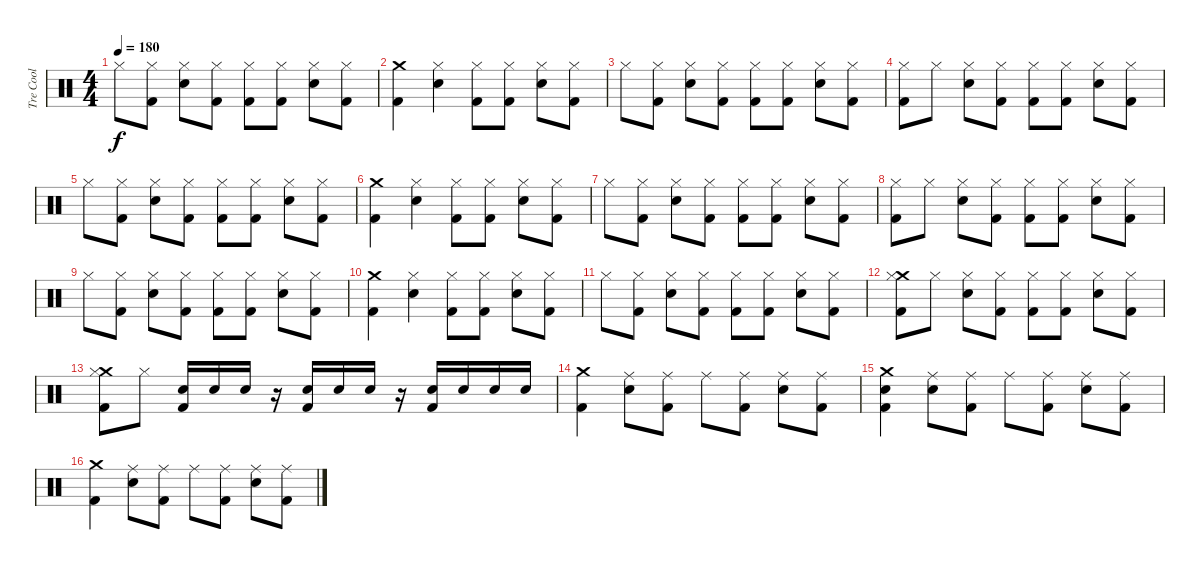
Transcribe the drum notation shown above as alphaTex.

\track ("Tre Cool" "Tre Cool") {instrument percussion}
\staff {score}
\articulation defaults
\ts (4 4)
\tempo 180
\clef neutral
\ks c "Hi-Hat (closed)".8{dy f}
("Hi-Hat (closed)" "Kick (hit) 2").8 ("Hi-Hat (closed)" "Snare (hit) 2").8 ("Hi-Hat (closed)" "Kick (hit) 2").8 ("Hi-Hat (closed)" "Kick (hit) 2").8 ("Hi-Hat (closed)" "Kick (hit) 2").8 ("Hi-Hat (closed)" "Snare (hit) 2").8 ("Hi-Hat (closed)" "Kick (hit) 2").8 |
("Crash medium (hit)" "Kick (hit) 2").4 ("Hi-Hat (closed)" "Snare (hit) 2").4 ("Hi-Hat (closed)" "Kick (hit) 2").8 ("Hi-Hat (closed)" "Kick (hit) 2").8 ("Hi-Hat (closed)" "Snare (hit) 2").8 ("Hi-Hat (closed)" "Kick (hit) 2").8 |
"Hi-Hat (closed)".8 ("Hi-Hat (closed)" "Kick (hit) 2").8 ("Hi-Hat (closed)" "Snare (hit) 2").8 ("Hi-Hat (closed)" "Kick (hit) 2").8 ("Hi-Hat (closed)" "Kick (hit) 2").8 ("Hi-Hat (closed)" "Kick (hit) 2").8 ("Hi-Hat (closed)" "Snare (hit) 2").8 ("Hi-Hat (closed)" "Kick (hit) 2").8 |
("Hi-Hat (closed)" "Kick (hit) 2").8 "Hi-Hat (closed)".8 ("Hi-Hat (closed)" "Snare (hit) 2").8 ("Hi-Hat (closed)" "Kick (hit) 2").8 ("Hi-Hat (closed)" "Kick (hit) 2").8 ("Hi-Hat (closed)" "Kick (hit) 2").8 ("Hi-Hat (closed)" "Snare (hit) 2").8 ("Hi-Hat (closed)" "Kick (hit) 2").8 |
"Hi-Hat (closed)".8 ("Hi-Hat (closed)" "Kick (hit) 2").8 ("Hi-Hat (closed)" "Snare (hit) 2").8 ("Hi-Hat (closed)" "Kick (hit) 2").8 ("Hi-Hat (closed)" "Kick (hit) 2").8 ("Hi-Hat (closed)" "Kick (hit) 2").8 ("Hi-Hat (closed)" "Snare (hit) 2").8 ("Hi-Hat (closed)" "Kick (hit) 2").8 |
("Crash medium (hit)" "Kick (hit) 2").4 ("Hi-Hat (closed)" "Snare (hit) 2").4 ("Hi-Hat (closed)" "Kick (hit) 2").8 ("Hi-Hat (closed)" "Kick (hit) 2").8 ("Hi-Hat (closed)" "Snare (hit) 2").8 ("Hi-Hat (closed)" "Kick (hit) 2").8 |
"Hi-Hat (closed)".8 ("Hi-Hat (closed)" "Kick (hit) 2").8 ("Hi-Hat (closed)" "Snare (hit) 2").8 ("Hi-Hat (closed)" "Kick (hit) 2").8 ("Hi-Hat (closed)" "Kick (hit) 2").8 ("Hi-Hat (closed)" "Kick (hit) 2").8 ("Hi-Hat (closed)" "Snare (hit) 2").8 ("Hi-Hat (closed)" "Kick (hit) 2").8 |
("Hi-Hat (closed)" "Kick (hit) 2").8 "Hi-Hat (closed)".8 ("Hi-Hat (closed)" "Snare (hit) 2").8 ("Hi-Hat (closed)" "Kick (hit) 2").8 ("Hi-Hat (closed)" "Kick (hit) 2").8 ("Hi-Hat (closed)" "Kick (hit) 2").8 ("Hi-Hat (closed)" "Snare (hit) 2").8 ("Hi-Hat (closed)" "Kick (hit) 2").8 |
"Hi-Hat (closed)".8 ("Hi-Hat (closed)" "Kick (hit) 2").8 ("Hi-Hat (closed)" "Snare (hit) 2").8 ("Hi-Hat (closed)" "Kick (hit) 2").8 ("Hi-Hat (closed)" "Kick (hit) 2").8 ("Hi-Hat (closed)" "Kick (hit) 2").8 ("Hi-Hat (closed)" "Snare (hit) 2").8 ("Hi-Hat (closed)" "Kick (hit) 2").8 |
("Crash medium (hit)" "Kick (hit) 2").4 ("Hi-Hat (closed)" "Snare (hit) 2").4 ("Hi-Hat (closed)" "Kick (hit) 2").8 ("Hi-Hat (closed)" "Kick (hit) 2").8 ("Hi-Hat (closed)" "Snare (hit) 2").8 ("Hi-Hat (closed)" "Kick (hit) 2").8 |
"Hi-Hat (closed)".8 ("Hi-Hat (closed)" "Kick (hit) 2").8 ("Hi-Hat (closed)" "Snare (hit) 2").8 ("Hi-Hat (closed)" "Kick (hit) 2").8 ("Hi-Hat (closed)" "Kick (hit) 2").8 ("Hi-Hat (closed)" "Kick (hit) 2").8 ("Hi-Hat (closed)" "Snare (hit) 2").8 ("Hi-Hat (closed)" "Kick (hit) 2").8 |
("Crash medium (hit)" "Hi-Hat (closed)" "Kick (hit) 2").8 "Hi-Hat (closed)".8 ("Hi-Hat (closed)" "Snare (hit) 2").8 ("Hi-Hat (closed)" "Kick (hit) 2").8 ("Hi-Hat (closed)" "Kick (hit) 2").8 ("Hi-Hat (closed)" "Kick (hit) 2").8 ("Hi-Hat (closed)" "Snare (hit) 2").8 ("Hi-Hat (closed)" "Kick (hit) 2").8 |
("Crash medium (hit)" "Hi-Hat (closed)" "Kick (hit) 2").8 "Hi-Hat (closed)".8 ("Snare (hit) 2" "Kick (hit) 2").16 "Snare (hit) 2".16 "Snare (hit) 2".16 r.16 ("Snare (hit) 2" "Kick (hit) 2").16 "Snare (hit) 2".16 "Snare (hit) 2".16 r.16 ("Snare (hit) 2" "Kick (hit) 2").16 "Snare (hit) 2".16 "Snare (hit) 2".16 "Snare (hit) 2".16 |
("Crash medium (hit)" "Kick (hit) 2").4 ("Ride (middle)" "Snare (hit) 2").8 ("Ride (middle)" "Kick (hit) 2").8 "Ride (middle)".8 ("Ride (middle)" "Kick (hit) 2").8 ("Ride (middle)" "Snare (hit) 2").8 ("Ride (middle)" "Kick (hit) 2").8 |
("Crash medium (hit)" "Snare (hit) 2" "Kick (hit) 2").4 ("Ride (middle)" "Snare (hit) 2").8 ("Ride (middle)" "Kick (hit) 2").8 "Ride (middle)".8 ("Ride (middle)" "Kick (hit) 2").8 ("Ride (middle)" "Snare (hit) 2").8 ("Ride (middle)" "Kick (hit) 2").8 |
("Crash medium (hit)" "Kick (hit) 2").4 ("Ride (middle)" "Snare (hit) 2").8 ("Ride (middle)" "Kick (hit) 2").8 "Ride (middle)".8 ("Ride (middle)" "Kick (hit) 2").8 ("Ride (middle)" "Snare (hit) 2").8 ("Ride (middle)" "Kick (hit) 2").8
